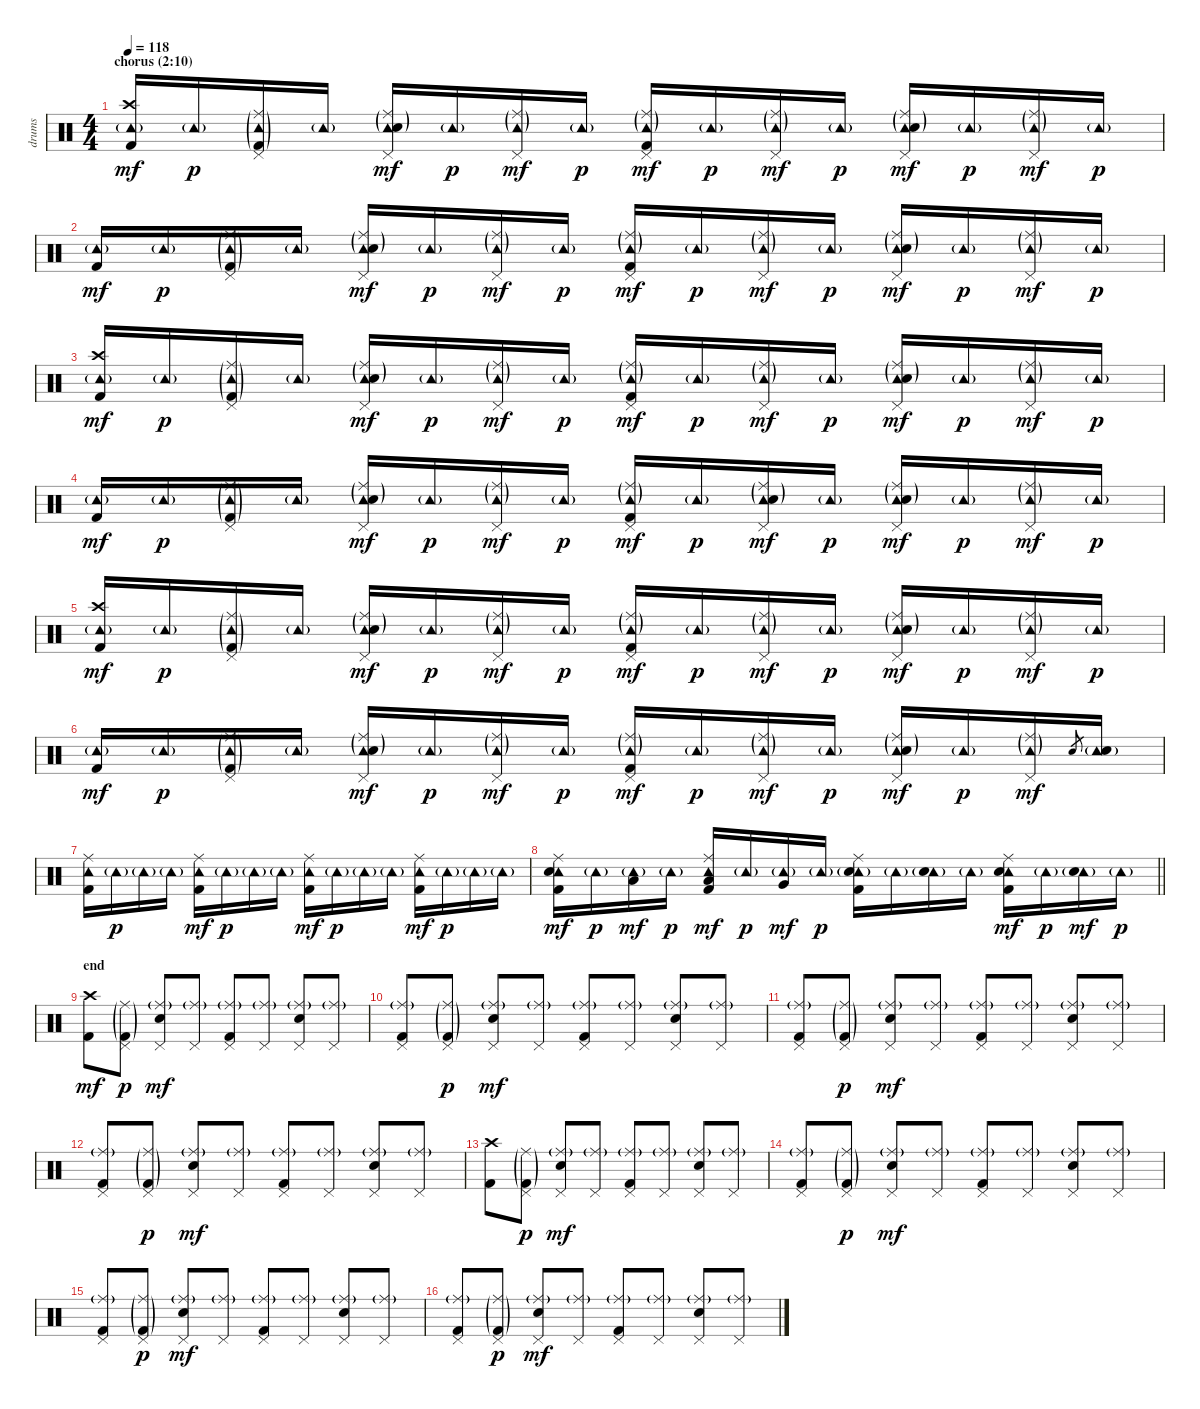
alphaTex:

\track ("drums" "drums") {instrument percussion}
\staff {score}
\articulation defaults
\ts (4 4)
\section ("" "chorus (2:10)")
\tempo 118
\clef neutral
\ks c
("Tambourine (hit)"{g} "Crash high (hit)" "Kick (hit) 2").16{dy mf} "Tambourine (hit)"{g}.16{dy p} ("Tambourine (hit)"{g} "Ride (middle)"{g} "Pedal Hi-Hat (hit)" "Kick (hit) 2"{g}).16 "Tambourine (hit)"{g}.16 ("Tambourine (hit)"{g} "Ride (middle)"{g} "Snare (hit) 2" "Pedal Hi-Hat (hit)").16{dy mf} "Tambourine (hit)"{g}.16{dy p} ("Tambourine (hit)"{g} "Ride (middle)"{g} "Pedal Hi-Hat (hit)").16{dy mf} "Tambourine (hit)"{g}.16{dy p} ("Tambourine (hit)"{g} "Ride (middle)"{g} "Kick (hit) 2" "Pedal Hi-Hat (hit)").16{dy mf} "Tambourine (hit)"{g}.16{dy p} ("Tambourine (hit)"{g} "Ride (middle)"{g} "Pedal Hi-Hat (hit)").16{dy mf} "Tambourine (hit)"{g}.16{dy p} ("Tambourine (hit)"{g} "Ride (middle)"{g} "Snare (hit) 2" "Pedal Hi-Hat (hit)").16{dy mf} "Tambourine (hit)"{g}.16{dy p} ("Tambourine (hit)"{g} "Ride (middle)"{g} "Pedal Hi-Hat (hit)").16{dy mf} "Tambourine (hit)"{g}.16{dy p} |
("Tambourine (hit)"{g} "Kick (hit) 2").16{dy mf} "Tambourine (hit)"{g}.16{dy p} ("Tambourine (hit)"{g} "Ride (middle)"{g} "Pedal Hi-Hat (hit)" "Kick (hit) 2"{g}).16 "Tambourine (hit)"{g}.16 ("Tambourine (hit)"{g} "Ride (middle)"{g} "Snare (hit) 2" "Pedal Hi-Hat (hit)").16{dy mf} "Tambourine (hit)"{g}.16{dy p} ("Tambourine (hit)"{g} "Ride (middle)"{g} "Pedal Hi-Hat (hit)").16{dy mf} "Tambourine (hit)"{g}.16{dy p} ("Tambourine (hit)"{g} "Ride (middle)"{g} "Kick (hit) 2" "Pedal Hi-Hat (hit)").16{dy mf} "Tambourine (hit)"{g}.16{dy p} ("Tambourine (hit)"{g} "Ride (middle)"{g} "Pedal Hi-Hat (hit)").16{dy mf} "Tambourine (hit)"{g}.16{dy p} ("Tambourine (hit)"{g} "Ride (middle)"{g} "Snare (hit) 2" "Pedal Hi-Hat (hit)").16{dy mf} "Tambourine (hit)"{g}.16{dy p} ("Tambourine (hit)"{g} "Ride (middle)"{g} "Pedal Hi-Hat (hit)").16{dy mf} "Tambourine (hit)"{g}.16{dy p} |
("Tambourine (hit)"{g} "Crash high (hit)" "Kick (hit) 2").16{dy mf} "Tambourine (hit)"{g}.16{dy p} ("Tambourine (hit)"{g} "Ride (middle)"{g} "Pedal Hi-Hat (hit)" "Kick (hit) 2"{g}).16 "Tambourine (hit)"{g}.16 ("Tambourine (hit)"{g} "Ride (middle)"{g} "Snare (hit) 2" "Pedal Hi-Hat (hit)").16{dy mf} "Tambourine (hit)"{g}.16{dy p} ("Tambourine (hit)"{g} "Ride (middle)"{g} "Pedal Hi-Hat (hit)").16{dy mf} "Tambourine (hit)"{g}.16{dy p} ("Tambourine (hit)"{g} "Ride (middle)"{g} "Kick (hit) 2" "Pedal Hi-Hat (hit)").16{dy mf} "Tambourine (hit)"{g}.16{dy p} ("Tambourine (hit)"{g} "Ride (middle)"{g} "Pedal Hi-Hat (hit)").16{dy mf} "Tambourine (hit)"{g}.16{dy p} ("Tambourine (hit)"{g} "Ride (middle)"{g} "Snare (hit) 2" "Pedal Hi-Hat (hit)").16{dy mf} "Tambourine (hit)"{g}.16{dy p} ("Tambourine (hit)"{g} "Ride (middle)"{g} "Pedal Hi-Hat (hit)").16{dy mf} "Tambourine (hit)"{g}.16{dy p} |
("Tambourine (hit)"{g} "Kick (hit) 2").16{dy mf} "Tambourine (hit)"{g}.16{dy p} ("Tambourine (hit)"{g} "Ride (middle)"{g} "Pedal Hi-Hat (hit)" "Kick (hit) 2"{g}).16 "Tambourine (hit)"{g}.16 ("Tambourine (hit)"{g} "Ride (middle)"{g} "Snare (hit) 2" "Pedal Hi-Hat (hit)").16{dy mf} "Tambourine (hit)"{g}.16{dy p} ("Tambourine (hit)"{g} "Ride (middle)"{g} "Pedal Hi-Hat (hit)").16{dy mf} "Tambourine (hit)"{g}.16{dy p} ("Tambourine (hit)"{g} "Ride (middle)"{g} "Kick (hit) 2" "Pedal Hi-Hat (hit)").16{dy mf} "Tambourine (hit)"{g}.16{dy p} ("Tambourine (hit)"{g} "Ride (middle)"{g} "Snare (hit) 2" "Pedal Hi-Hat (hit)").16{dy mf} "Tambourine (hit)"{g}.16{dy p} ("Tambourine (hit)"{g} "Ride (middle)"{g} "Snare (hit) 2" "Pedal Hi-Hat (hit)").16{dy mf} "Tambourine (hit)"{g}.16{dy p} ("Tambourine (hit)"{g} "Ride (middle)"{g} "Pedal Hi-Hat (hit)").16{dy mf} "Tambourine (hit)"{g}.16{dy p} |
("Tambourine (hit)"{g} "Crash high (hit)" "Kick (hit) 2").16{dy mf} "Tambourine (hit)"{g}.16{dy p} ("Tambourine (hit)"{g} "Ride (middle)"{g} "Pedal Hi-Hat (hit)" "Kick (hit) 2"{g}).16 "Tambourine (hit)"{g}.16 ("Tambourine (hit)"{g} "Ride (middle)"{g} "Snare (hit) 2" "Pedal Hi-Hat (hit)").16{dy mf} "Tambourine (hit)"{g}.16{dy p} ("Tambourine (hit)"{g} "Ride (middle)"{g} "Pedal Hi-Hat (hit)").16{dy mf} "Tambourine (hit)"{g}.16{dy p} ("Tambourine (hit)"{g} "Ride (middle)"{g} "Kick (hit) 2" "Pedal Hi-Hat (hit)").16{dy mf} "Tambourine (hit)"{g}.16{dy p} ("Tambourine (hit)"{g} "Ride (middle)"{g} "Pedal Hi-Hat (hit)").16{dy mf} "Tambourine (hit)"{g}.16{dy p} ("Tambourine (hit)"{g} "Ride (middle)"{g} "Snare (hit) 2" "Pedal Hi-Hat (hit)").16{dy mf} "Tambourine (hit)"{g}.16{dy p} ("Tambourine (hit)"{g} "Ride (middle)"{g} "Pedal Hi-Hat (hit)").16{dy mf} "Tambourine (hit)"{g}.16{dy p} |
("Tambourine (hit)"{g} "Kick (hit) 2").16{dy mf} "Tambourine (hit)"{g}.16{dy p} ("Tambourine (hit)"{g} "Ride (middle)"{g} "Pedal Hi-Hat (hit)" "Kick (hit) 2"{g}).16 "Tambourine (hit)"{g}.16 ("Tambourine (hit)"{g} "Ride (middle)"{g} "Snare (hit) 2" "Pedal Hi-Hat (hit)").16{dy mf} "Tambourine (hit)"{g}.16{dy p} ("Tambourine (hit)"{g} "Ride (middle)"{g} "Pedal Hi-Hat (hit)").16{dy mf} "Tambourine (hit)"{g}.16{dy p} ("Tambourine (hit)"{g} "Ride (middle)"{g} "Kick (hit) 2" "Pedal Hi-Hat (hit)").16{dy mf} "Tambourine (hit)"{g}.16{dy p} ("Tambourine (hit)"{g} "Ride (middle)"{g} "Pedal Hi-Hat (hit)").16{dy mf} "Tambourine (hit)"{g}.16{dy p} ("Tambourine (hit)"{g} "Ride (middle)"{g} "Snare (hit) 2" "Pedal Hi-Hat (hit)").16{dy mf} "Tambourine (hit)"{g}.16{dy p} ("Tambourine (hit)"{g} "Ride (middle)"{g} "Pedal Hi-Hat (hit)").16{dy mf} "Snare (hit) 2".8{gr} ("Tambourine (hit)"{g} "Snare (hit) 2").16 |
("Tambourine (hit)" "Kick (hit) 2" "Ride (middle)").16 "Tambourine (hit)"{g}.16{dy p} "Tambourine (hit)"{g}.16 "Tambourine (hit)"{g}.16 ("Tambourine (hit)" "Kick (hit) 2" "Ride (middle)").16{dy mf} "Tambourine (hit)"{g}.16{dy p} "Tambourine (hit)"{g}.16 "Tambourine (hit)"{g}.16 ("Tambourine (hit)" "Kick (hit) 2" "Ride (middle)").16{dy mf} "Tambourine (hit)"{g}.16{dy p} "Tambourine (hit)"{g}.16 "Tambourine (hit)"{g}.16 ("Tambourine (hit)" "Kick (hit) 2" "Ride (middle)").16{dy mf} "Tambourine (hit)"{g}.16{dy p} "Tambourine (hit)"{g}.16 "Tambourine (hit)"{g}.16 |
\barLineRight lightlight
("Tambourine (hit)" "Kick (hit) 2" "Ride (middle)" "Snare (hit) 2").16{dy mf} "Tambourine (hit)"{g}.16{dy p} ("Tambourine (hit)"{g} "Low Floor Tom (hit)").16{dy mf} "Tambourine (hit)"{g}.16{dy p} ("Tambourine (hit)" "Kick (hit) 2" "Ride (middle)" "Low Tom (hit)").16{dy mf} "Tambourine (hit)"{g}.16{dy p} ("Tambourine (hit)"{g} "Very Low Tom (hit)").16{dy mf} "Tambourine (hit)"{g}.16{dy p} ("Tambourine (hit)" "Kick (hit) 2" "Ride (middle)" "Snare (hit) 2"{g}).16 "Tambourine (hit)"{g}.16 ("Tambourine (hit)"{g} "Snare (hit) 2"{g}).16 "Tambourine (hit)"{g}.16 ("Tambourine (hit)" "Kick (hit) 2" "Ride (middle)" "Snare (hit) 2").16{dy mf} "Tambourine (hit)"{g}.16{dy p} ("Tambourine (hit)"{g} "Snare (hit) 2").16{dy mf} "Tambourine (hit)"{g}.16{dy p} |
\section ("" "end")
("Crash high (hit)" "Kick (hit) 2").8{dy mf} ("Ride (middle)"{g} "Pedal Hi-Hat (hit)" "Kick (hit) 2"{g}).8{dy p} ("Ride (middle)"{g} "Snare (hit) 2" "Pedal Hi-Hat (hit)").8{dy mf} ("Ride (middle)"{g} "Pedal Hi-Hat (hit)").8 ("Ride (middle)"{g} "Kick (hit) 2" "Pedal Hi-Hat (hit)").8 ("Ride (middle)"{g} "Pedal Hi-Hat (hit)").8 ("Ride (middle)"{g} "Snare (hit) 2" "Pedal Hi-Hat (hit)").8 ("Ride (middle)"{g} "Pedal Hi-Hat (hit)").8 |
("Ride (middle)"{g} "Kick (hit) 2" "Pedal Hi-Hat (hit)").8 ("Ride (middle)"{g} "Pedal Hi-Hat (hit)" "Kick (hit) 2"{g}).8{dy p} ("Ride (middle)"{g} "Snare (hit) 2" "Pedal Hi-Hat (hit)").8{dy mf} ("Ride (middle)"{g} "Pedal Hi-Hat (hit)").8 ("Ride (middle)"{g} "Kick (hit) 2" "Pedal Hi-Hat (hit)").8 ("Ride (middle)"{g} "Pedal Hi-Hat (hit)").8 ("Ride (middle)"{g} "Snare (hit) 2" "Pedal Hi-Hat (hit)").8 ("Ride (middle)"{g} "Pedal Hi-Hat (hit)").8 |
("Ride (middle)"{g} "Kick (hit) 2" "Pedal Hi-Hat (hit)").8 ("Ride (middle)"{g} "Pedal Hi-Hat (hit)" "Kick (hit) 2"{g}).8{dy p} ("Ride (middle)"{g} "Snare (hit) 2" "Pedal Hi-Hat (hit)").8{dy mf} ("Ride (middle)"{g} "Pedal Hi-Hat (hit)").8 ("Ride (middle)"{g} "Kick (hit) 2" "Pedal Hi-Hat (hit)").8 ("Ride (middle)"{g} "Pedal Hi-Hat (hit)").8 ("Ride (middle)"{g} "Snare (hit) 2" "Pedal Hi-Hat (hit)").8 ("Ride (middle)"{g} "Pedal Hi-Hat (hit)").8 |
("Ride (middle)"{g} "Kick (hit) 2" "Pedal Hi-Hat (hit)").8 ("Ride (middle)"{g} "Pedal Hi-Hat (hit)" "Kick (hit) 2"{g}).8{dy p} ("Ride (middle)"{g} "Snare (hit) 2" "Pedal Hi-Hat (hit)").8{dy mf} ("Ride (middle)"{g} "Pedal Hi-Hat (hit)").8 ("Ride (middle)"{g} "Kick (hit) 2" "Pedal Hi-Hat (hit)").8 ("Ride (middle)"{g} "Pedal Hi-Hat (hit)").8 ("Ride (middle)"{g} "Snare (hit) 2" "Pedal Hi-Hat (hit)").8 ("Ride (middle)"{g} "Pedal Hi-Hat (hit)").8 |
("Crash high (hit)" "Kick (hit) 2").8 ("Ride (middle)"{g} "Pedal Hi-Hat (hit)" "Kick (hit) 2"{g}).8{dy p} ("Ride (middle)"{g} "Snare (hit) 2" "Pedal Hi-Hat (hit)").8{dy mf} ("Ride (middle)"{g} "Pedal Hi-Hat (hit)").8 ("Ride (middle)"{g} "Kick (hit) 2" "Pedal Hi-Hat (hit)").8 ("Ride (middle)"{g} "Pedal Hi-Hat (hit)").8 ("Ride (middle)"{g} "Snare (hit) 2" "Pedal Hi-Hat (hit)").8 ("Ride (middle)"{g} "Pedal Hi-Hat (hit)").8 |
("Ride (middle)"{g} "Kick (hit) 2" "Pedal Hi-Hat (hit)").8 ("Ride (middle)"{g} "Pedal Hi-Hat (hit)" "Kick (hit) 2"{g}).8{dy p} ("Ride (middle)"{g} "Snare (hit) 2" "Pedal Hi-Hat (hit)").8{dy mf} ("Ride (middle)"{g} "Pedal Hi-Hat (hit)").8 ("Ride (middle)"{g} "Kick (hit) 2" "Pedal Hi-Hat (hit)").8 ("Ride (middle)"{g} "Pedal Hi-Hat (hit)").8 ("Ride (middle)"{g} "Snare (hit) 2" "Pedal Hi-Hat (hit)").8 ("Ride (middle)"{g} "Pedal Hi-Hat (hit)").8 |
("Ride (middle)"{g} "Kick (hit) 2" "Pedal Hi-Hat (hit)").8 ("Ride (middle)"{g} "Pedal Hi-Hat (hit)" "Kick (hit) 2"{g}).8{dy p} ("Ride (middle)"{g} "Snare (hit) 2" "Pedal Hi-Hat (hit)").8{dy mf} ("Ride (middle)"{g} "Pedal Hi-Hat (hit)").8 ("Ride (middle)"{g} "Kick (hit) 2" "Pedal Hi-Hat (hit)").8 ("Ride (middle)"{g} "Pedal Hi-Hat (hit)").8 ("Ride (middle)"{g} "Snare (hit) 2" "Pedal Hi-Hat (hit)").8 ("Ride (middle)"{g} "Pedal Hi-Hat (hit)").8 |
("Ride (middle)"{g} "Kick (hit) 2" "Pedal Hi-Hat (hit)").8 ("Ride (middle)"{g} "Pedal Hi-Hat (hit)" "Kick (hit) 2"{g}).8{dy p} ("Ride (middle)"{g} "Snare (hit) 2" "Pedal Hi-Hat (hit)").8{dy mf} ("Ride (middle)"{g} "Pedal Hi-Hat (hit)").8 ("Ride (middle)"{g} "Kick (hit) 2" "Pedal Hi-Hat (hit)").8 ("Ride (middle)"{g} "Pedal Hi-Hat (hit)").8 ("Ride (middle)"{g} "Snare (hit) 2" "Pedal Hi-Hat (hit)").8 ("Ride (middle)"{g} "Pedal Hi-Hat (hit)").8
